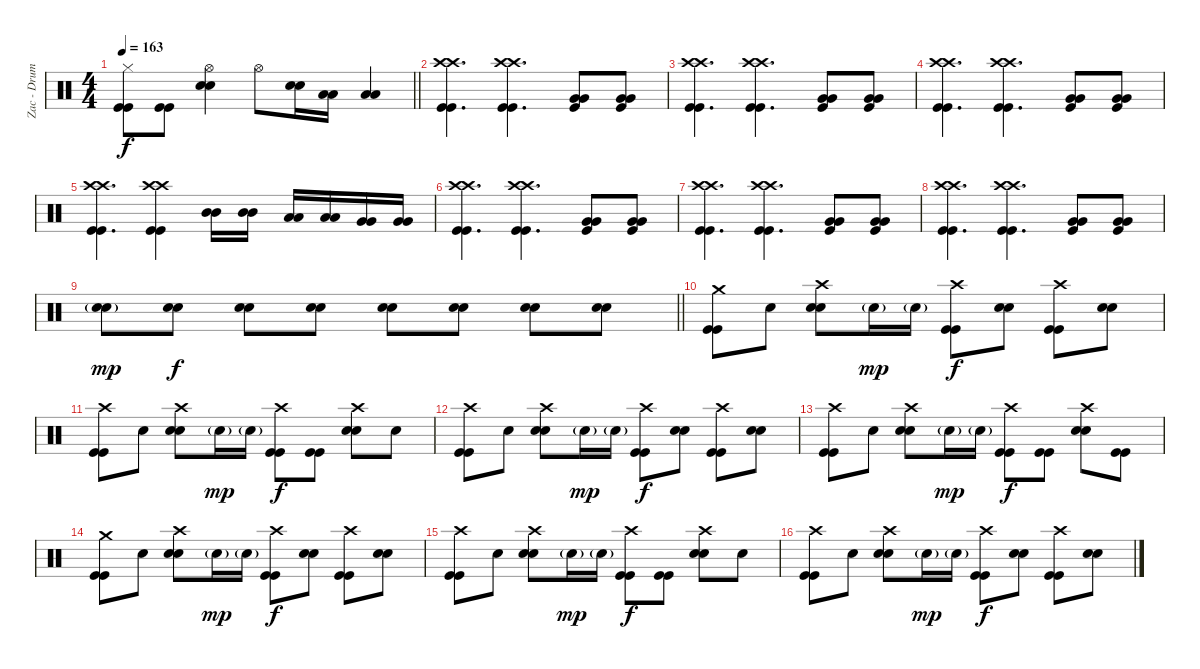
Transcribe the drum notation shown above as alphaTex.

\track ("Zac - Drums" "Zac - Drum") {instrument percussion}
\staff {score}
\articulation defaults
\ts (4 4)
\tempo 163
\clef neutral
\barLineRight lightlight
\ks c
("Hi-Hat (closed)" "Kick (hit)" "Kick (hit)").8{dy f} ("Kick (hit)" "Kick (hit)").8 ("Hi-Hat (open)" "Electric Snare (hit)" "Electric Snare (hit)").4 "Hi-Hat (open)".8 ("Electric Snare (hit)" "Electric Snare (hit)").16 ("Low Tom (hit)" "Low Tom (hit)").16 ("Low Tom (hit)" "Low Tom (hit)").4 |
("Crash high (hit)" "Crash high (hit)" "Kick (hit)" "Kick (hit)").4{d} ("Crash high (hit)" "Crash high (hit)" "Kick (hit)" "Kick (hit)").4{d} ("Very Low Tom (hit)" "Very Low Tom (hit)" "Kick (hit)").8 ("Very Low Tom (hit)" "Very Low Tom (hit)" "Kick (hit)").8 |
("Crash high (hit)" "Crash high (hit)" "Kick (hit)" "Kick (hit)").4{d} ("Crash high (hit)" "Crash high (hit)" "Kick (hit)" "Kick (hit)").4{d} ("Very Low Tom (hit)" "Very Low Tom (hit)" "Kick (hit)").8 ("Very Low Tom (hit)" "Very Low Tom (hit)" "Kick (hit)").8 |
("Crash high (hit)" "Crash high (hit)" "Kick (hit)" "Kick (hit)").4{d} ("Crash high (hit)" "Crash high (hit)" "Kick (hit)" "Kick (hit)").4{d} ("Very Low Tom (hit)" "Very Low Tom (hit)" "Kick (hit)").8 ("Very Low Tom (hit)" "Very Low Tom (hit)" "Kick (hit)").8 |
("Crash high (hit)" "Crash high (hit)" "Kick (hit)" "Kick (hit)").4{d} ("Crash high (hit)" "Crash high (hit)" "Kick (hit)" "Kick (hit)").4 ("Mid Tom (hit)" "Mid Tom (hit)").16 ("Mid Tom (hit)" "Mid Tom (hit)").16 ("Low Tom (hit)" "Low Tom (hit)").16 ("Low Tom (hit)" "Low Tom (hit)").16 ("Very Low Tom (hit)" "Very Low Tom (hit)").16 ("Very Low Tom (hit)" "Very Low Tom (hit)").16 |
("Crash high (hit)" "Crash high (hit)" "Kick (hit)" "Kick (hit)").4{d} ("Crash high (hit)" "Crash high (hit)" "Kick (hit)" "Kick (hit)").4{d} ("Very Low Tom (hit)" "Very Low Tom (hit)" "Kick (hit)").8 ("Very Low Tom (hit)" "Very Low Tom (hit)" "Kick (hit)").8 |
("Crash high (hit)" "Crash high (hit)" "Kick (hit)" "Kick (hit)").4{d} ("Crash high (hit)" "Crash high (hit)" "Kick (hit)" "Kick (hit)").4{d} ("Very Low Tom (hit)" "Very Low Tom (hit)" "Kick (hit)").8 ("Very Low Tom (hit)" "Very Low Tom (hit)" "Kick (hit)").8 |
("Crash high (hit)" "Crash high (hit)" "Kick (hit)" "Kick (hit)").4{d} ("Crash high (hit)" "Crash high (hit)" "Kick (hit)" "Kick (hit)").4{d} ("Very Low Tom (hit)" "Very Low Tom (hit)" "Kick (hit)").8 ("Very Low Tom (hit)" "Very Low Tom (hit)" "Kick (hit)").8 |
\barLineRight lightlight
("Electric Snare (hit)"{g} "Electric Snare (hit)"{g}).8{dy mp} ("Electric Snare (hit)" "Electric Snare (hit)").8{dy f} ("Electric Snare (hit)" "Electric Snare (hit)").8 ("Electric Snare (hit)" "Electric Snare (hit)").8 ("Electric Snare (hit)" "Electric Snare (hit)").8 ("Electric Snare (hit)" "Electric Snare (hit)").8 ("Electric Snare (hit)" "Electric Snare (hit)").8 ("Electric Snare (hit)" "Electric Snare (hit)").8 |
("Crash medium (hit)" "Kick (hit)" "Kick (hit)").8 "Snare (hit)".8 ("Crash high (hit)" "Electric Snare (hit)" "Electric Snare (hit)").8 "Electric Snare (hit)"{g}.16{dy mp} "Electric Snare (hit)"{g}.16 ("Crash high (hit)" "Kick (hit)" "Kick (hit)").8{dy f} ("Electric Snare (hit)" "Electric Snare (hit)").8 ("Crash high (hit)" "Kick (hit)" "Kick (hit)").8 ("Electric Snare (hit)" "Electric Snare (hit)").8 |
("Crash high (hit)" "Kick (hit)" "Kick (hit)").8 "Snare (hit)".8 ("Crash high (hit)" "Electric Snare (hit)" "Electric Snare (hit)").8 "Electric Snare (hit)"{g}.16{dy mp} "Electric Snare (hit)"{g}.16 ("Crash high (hit)" "Kick (hit)" "Kick (hit)").8{dy f} ("Kick (hit)" "Kick (hit)").8 ("Crash high (hit)" "Electric Snare (hit)" "Electric Snare (hit)").8 "Snare (hit)".8 |
("Crash high (hit)" "Kick (hit)" "Kick (hit)").8 "Snare (hit)".8 ("Crash high (hit)" "Electric Snare (hit)" "Electric Snare (hit)").8 "Electric Snare (hit)"{g}.16{dy mp} "Electric Snare (hit)"{g}.16 ("Crash high (hit)" "Kick (hit)" "Kick (hit)").8{dy f} ("Electric Snare (hit)" "Electric Snare (hit)").8 ("Crash high (hit)" "Kick (hit)" "Kick (hit)").8 ("Electric Snare (hit)" "Electric Snare (hit)").8 |
("Crash high (hit)" "Kick (hit)" "Kick (hit)").8 "Snare (hit)".8 ("Crash high (hit)" "Electric Snare (hit)" "Electric Snare (hit)").8 "Electric Snare (hit)"{g}.16{dy mp} "Electric Snare (hit)"{g}.16 ("Crash high (hit)" "Kick (hit)" "Kick (hit)").8{dy f} ("Kick (hit)" "Kick (hit)").8 ("Crash high (hit)" "Electric Snare (hit)" "Electric Snare (hit)").8 ("Kick (hit)" "Kick (hit)").8 |
("Crash medium (hit)" "Kick (hit)" "Kick (hit)").8 "Snare (hit)".8 ("Crash high (hit)" "Electric Snare (hit)" "Electric Snare (hit)").8 "Electric Snare (hit)"{g}.16{dy mp} "Electric Snare (hit)"{g}.16 ("Crash high (hit)" "Kick (hit)" "Kick (hit)").8{dy f} ("Electric Snare (hit)" "Electric Snare (hit)").8 ("Crash high (hit)" "Kick (hit)" "Kick (hit)").8 ("Electric Snare (hit)" "Electric Snare (hit)").8 |
("Crash high (hit)" "Kick (hit)" "Kick (hit)").8 "Snare (hit)".8 ("Crash high (hit)" "Electric Snare (hit)" "Electric Snare (hit)").8 "Electric Snare (hit)"{g}.16{dy mp} "Electric Snare (hit)"{g}.16 ("Crash high (hit)" "Kick (hit)" "Kick (hit)").8{dy f} ("Kick (hit)" "Kick (hit)").8 ("Crash high (hit)" "Electric Snare (hit)" "Electric Snare (hit)").8 "Snare (hit)".8 |
("Crash high (hit)" "Kick (hit)" "Kick (hit)").8 "Snare (hit)".8 ("Crash high (hit)" "Electric Snare (hit)" "Electric Snare (hit)").8 "Electric Snare (hit)"{g}.16{dy mp} "Electric Snare (hit)"{g}.16 ("Crash high (hit)" "Kick (hit)" "Kick (hit)").8{dy f} ("Electric Snare (hit)" "Electric Snare (hit)").8 ("Crash high (hit)" "Kick (hit)" "Kick (hit)").8 ("Electric Snare (hit)" "Electric Snare (hit)").8
